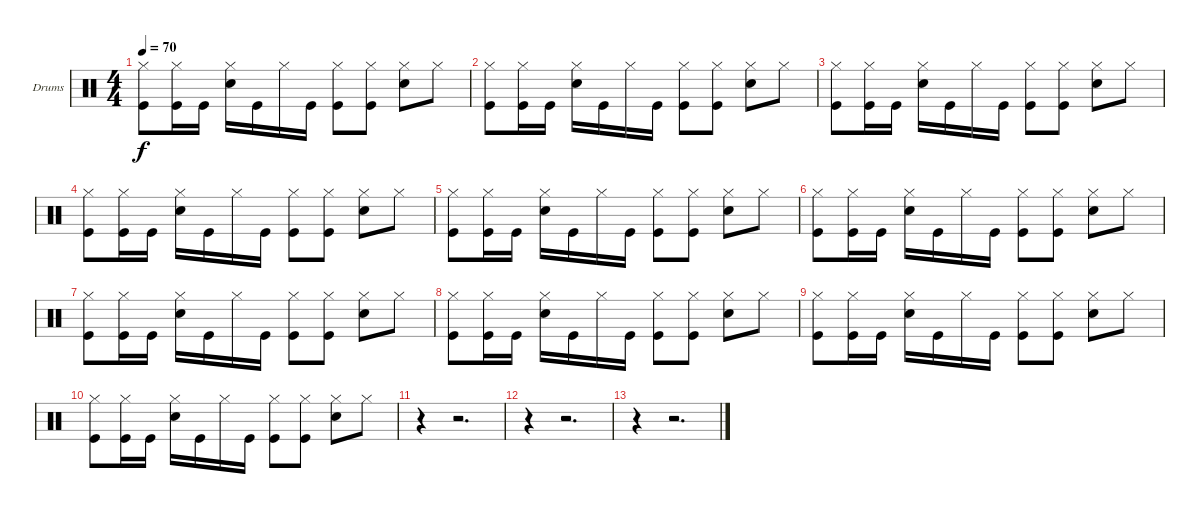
\bracketExtendMode groupsimilarinstruments
\firstSystemTrackNameOrientation horizontal
\otherSystemsTrackNameOrientation horizontal
\track ("Drumkit" "Drums") {instrument percussion}
\staff {score}
\articulation defaults
\ts (4 4)
\tempo 70
\clef neutral
\ks c
("Hi-Hat (closed)" "Kick (hit)").8{dy f} ("Hi-Hat (closed)" "Kick (hit)").16 "Kick (hit)".16 ("Hi-Hat (closed)" "Snare (hit) 2").16 "Kick (hit)".16 "Hi-Hat (closed)".16 "Kick (hit)".16 ("Hi-Hat (closed)" "Kick (hit)").8 ("Hi-Hat (closed)" "Kick (hit)").8 ("Hi-Hat (closed)" "Snare (hit) 2").8 "Hi-Hat (closed)".8 |
("Hi-Hat (closed)" "Kick (hit)").8 ("Hi-Hat (closed)" "Kick (hit)").16 "Kick (hit)".16 ("Hi-Hat (closed)" "Snare (hit) 2").16 "Kick (hit)".16 "Hi-Hat (closed)".16 "Kick (hit)".16 ("Hi-Hat (closed)" "Kick (hit)").8 ("Hi-Hat (closed)" "Kick (hit)").8 ("Hi-Hat (closed)" "Snare (hit) 2").8 "Hi-Hat (closed)".8 |
("Hi-Hat (closed)" "Kick (hit)").8 ("Hi-Hat (closed)" "Kick (hit)").16 "Kick (hit)".16 ("Hi-Hat (closed)" "Snare (hit) 2").16 "Kick (hit)".16 "Hi-Hat (closed)".16 "Kick (hit)".16 ("Hi-Hat (closed)" "Kick (hit)").8 ("Hi-Hat (closed)" "Kick (hit)").8 ("Hi-Hat (closed)" "Snare (hit) 2").8 "Hi-Hat (closed)".8 |
("Hi-Hat (closed)" "Kick (hit)").8 ("Hi-Hat (closed)" "Kick (hit)").16 "Kick (hit)".16 ("Hi-Hat (closed)" "Snare (hit) 2").16 "Kick (hit)".16 "Hi-Hat (closed)".16 "Kick (hit)".16 ("Hi-Hat (closed)" "Kick (hit)").8 ("Hi-Hat (closed)" "Kick (hit)").8 ("Hi-Hat (closed)" "Snare (hit) 2").8 "Hi-Hat (closed)".8 |
("Hi-Hat (closed)" "Kick (hit)").8 ("Hi-Hat (closed)" "Kick (hit)").16 "Kick (hit)".16 ("Hi-Hat (closed)" "Snare (hit) 2").16 "Kick (hit)".16 "Hi-Hat (closed)".16 "Kick (hit)".16 ("Hi-Hat (closed)" "Kick (hit)").8 ("Hi-Hat (closed)" "Kick (hit)").8 ("Hi-Hat (closed)" "Snare (hit) 2").8 "Hi-Hat (closed)".8 |
("Hi-Hat (closed)" "Kick (hit)").8 ("Hi-Hat (closed)" "Kick (hit)").16 "Kick (hit)".16 ("Hi-Hat (closed)" "Snare (hit) 2").16 "Kick (hit)".16 "Hi-Hat (closed)".16 "Kick (hit)".16 ("Hi-Hat (closed)" "Kick (hit)").8 ("Hi-Hat (closed)" "Kick (hit)").8 ("Hi-Hat (closed)" "Snare (hit) 2").8 "Hi-Hat (closed)".8 |
("Hi-Hat (closed)" "Kick (hit)").8 ("Hi-Hat (closed)" "Kick (hit)").16 "Kick (hit)".16 ("Hi-Hat (closed)" "Snare (hit) 2").16 "Kick (hit)".16 "Hi-Hat (closed)".16 "Kick (hit)".16 ("Hi-Hat (closed)" "Kick (hit)").8 ("Hi-Hat (closed)" "Kick (hit)").8 ("Hi-Hat (closed)" "Snare (hit) 2").8 "Hi-Hat (closed)".8 |
("Hi-Hat (closed)" "Kick (hit)").8 ("Hi-Hat (closed)" "Kick (hit)").16 "Kick (hit)".16 ("Hi-Hat (closed)" "Snare (hit) 2").16 "Kick (hit)".16 "Hi-Hat (closed)".16 "Kick (hit)".16 ("Hi-Hat (closed)" "Kick (hit)").8 ("Hi-Hat (closed)" "Kick (hit)").8 ("Hi-Hat (closed)" "Snare (hit) 2").8 "Hi-Hat (closed)".8 |
("Hi-Hat (closed)" "Kick (hit)").8 ("Hi-Hat (closed)" "Kick (hit)").16 "Kick (hit)".16 ("Hi-Hat (closed)" "Snare (hit) 2").16 "Kick (hit)".16 "Hi-Hat (closed)".16 "Kick (hit)".16 ("Hi-Hat (closed)" "Kick (hit)").8 ("Hi-Hat (closed)" "Kick (hit)").8 ("Hi-Hat (closed)" "Snare (hit) 2").8 "Hi-Hat (closed)".8 |
("Hi-Hat (closed)" "Kick (hit)").8 ("Hi-Hat (closed)" "Kick (hit)").16 "Kick (hit)".16 ("Hi-Hat (closed)" "Snare (hit) 2").16 "Kick (hit)".16 "Hi-Hat (closed)".16 "Kick (hit)".16 ("Hi-Hat (closed)" "Kick (hit)").8 ("Hi-Hat (closed)" "Kick (hit)").8 ("Hi-Hat (closed)" "Snare (hit) 2").8 "Hi-Hat (closed)".8 |
r.4 r.2{d} |
r.4 r.2{d} |
r.4 r.2{d}
